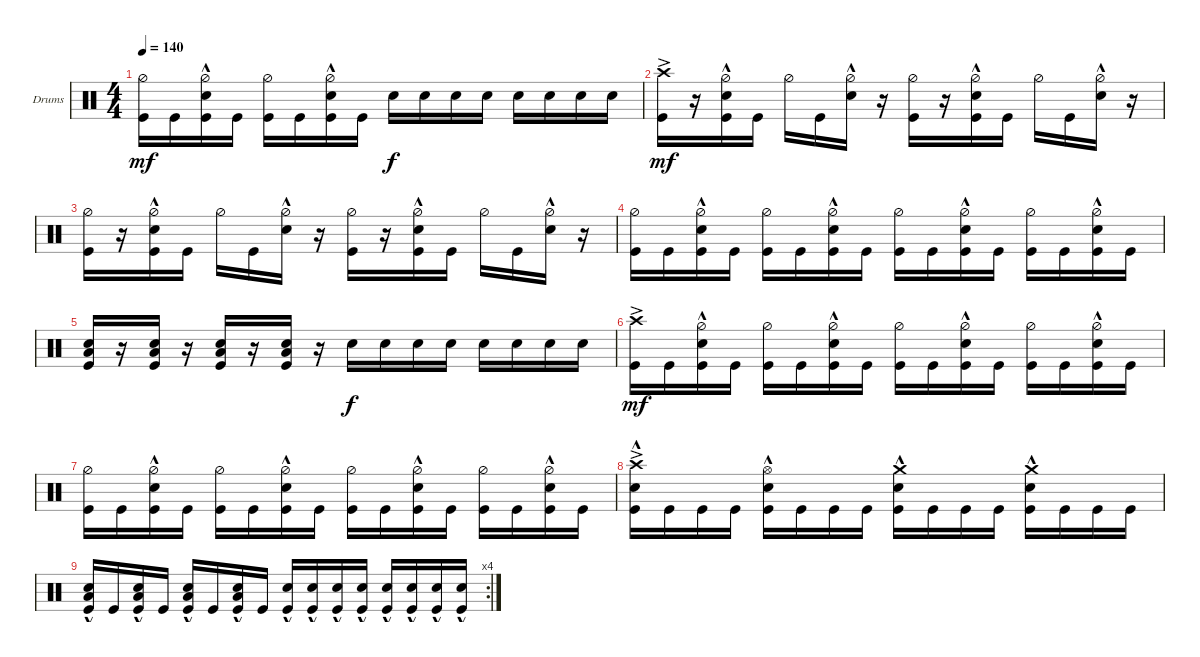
\defaultSystemsLayout 4
\bracketExtendMode groupsimilarinstruments
\firstSystemTrackNameOrientation horizontal
\otherSystemsTrackNameOrientation horizontal
\track ("Drumkit" "Drums") {instrument percussion}
\staff {score}
\articulation defaults
\ts (4 4)
\tempo 140
\clef neutral
\ks c
("Kick (hit)" "Hi-Hat (half)").16{dy mf} "Kick (hit)".16 ("Kick (hit)" "Snare (hit) 2"{hac} "Hi-Hat (half)").16 "Kick (hit)".16 ("Kick (hit)" "Hi-Hat (half)").16 "Kick (hit)".16 ("Kick (hit)" "Snare (hit) 2"{hac} "Hi-Hat (half)").16 "Kick (hit)".16 "Snare (hit) 2".16{dy f} "Snare (hit) 2".16 "Snare (hit) 2".16 "Snare (hit) 2".16 "Snare (hit) 2".16 "Snare (hit) 2".16 "Snare (hit) 2".16 "Snare (hit) 2".16 |
("Kick (hit)" "Crash high (hit)"{ac}).16{dy mf} r.16 ("Kick (hit)" "Snare (hit) 2"{hac} "Hi-Hat (half)").16 "Kick (hit)".16 "Hi-Hat (half)".16 "Kick (hit)".16 ("Snare (hit) 2"{hac} "Hi-Hat (half)").16 r.16 ("Kick (hit)" "Hi-Hat (half)").16 r.16 ("Kick (hit)" "Snare (hit) 2"{hac} "Hi-Hat (half)").16 "Kick (hit)".16 "Hi-Hat (half)".16 "Kick (hit)".16 ("Snare (hit) 2"{hac} "Hi-Hat (half)").16 r.16 |
("Kick (hit)" "Hi-Hat (half)").16 r.16 ("Kick (hit)" "Snare (hit) 2"{hac} "Hi-Hat (half)").16 "Kick (hit)".16 "Hi-Hat (half)".16 "Kick (hit)".16 ("Snare (hit) 2"{hac} "Hi-Hat (half)").16 r.16 ("Kick (hit)" "Hi-Hat (half)").16 r.16 ("Kick (hit)" "Snare (hit) 2"{hac} "Hi-Hat (half)").16 "Kick (hit)".16 "Hi-Hat (half)".16 "Kick (hit)".16 ("Snare (hit) 2"{hac} "Hi-Hat (half)").16 r.16 |
("Kick (hit)" "Hi-Hat (half)").16 "Kick (hit)".16 ("Kick (hit)" "Snare (hit) 2"{hac} "Hi-Hat (half)").16 "Kick (hit)".16 ("Kick (hit)" "Hi-Hat (half)").16 "Kick (hit)".16 ("Kick (hit)" "Snare (hit) 2"{hac} "Hi-Hat (half)").16 "Kick (hit)".16 ("Kick (hit)" "Hi-Hat (half)").16 "Kick (hit)".16 ("Kick (hit)" "Snare (hit) 2"{hac} "Hi-Hat (half)").16 "Kick (hit)".16 ("Kick (hit)" "Hi-Hat (half)").16 "Kick (hit)".16 ("Kick (hit)" "Snare (hit) 2"{hac} "Hi-Hat (half)").16 "Kick (hit)".16 |
("Kick (hit)" "Low Tom (hit)" "Snare (hit) 2").16 r.16 ("Kick (hit)" "Low Tom (hit)" "Snare (hit) 2").16 r.16 ("Kick (hit)" "Low Tom (hit)" "Snare (hit) 2").16 r.16 ("Kick (hit)" "Low Tom (hit)" "Snare (hit) 2").16 r.16 "Snare (hit) 2".16{dy f} "Snare (hit) 2".16 "Snare (hit) 2".16 "Snare (hit) 2".16 "Snare (hit) 2".16 "Snare (hit) 2".16 "Snare (hit) 2".16 "Snare (hit) 2".16 |
("Kick (hit)" "Crash high (hit)"{ac}).16{dy mf} "Kick (hit)".16 ("Kick (hit)" "Snare (hit) 2"{hac} "Hi-Hat (half)").16 "Kick (hit)".16 ("Kick (hit)" "Hi-Hat (half)").16 "Kick (hit)".16 ("Kick (hit)" "Snare (hit) 2"{hac} "Hi-Hat (half)").16 "Kick (hit)".16 ("Kick (hit)" "Hi-Hat (half)").16 "Kick (hit)".16 ("Kick (hit)" "Snare (hit) 2"{hac} "Hi-Hat (half)").16 "Kick (hit)".16 ("Kick (hit)" "Hi-Hat (half)").16 "Kick (hit)".16 ("Kick (hit)" "Snare (hit) 2"{hac} "Hi-Hat (half)").16 "Kick (hit)".16 |
("Kick (hit)" "Hi-Hat (half)").16 "Kick (hit)".16 ("Kick (hit)" "Snare (hit) 2"{hac} "Hi-Hat (half)").16 "Kick (hit)".16 ("Kick (hit)" "Hi-Hat (half)").16 "Kick (hit)".16 ("Kick (hit)" "Snare (hit) 2"{hac} "Hi-Hat (half)").16 "Kick (hit)".16 ("Kick (hit)" "Hi-Hat (half)").16 "Kick (hit)".16 ("Kick (hit)" "Snare (hit) 2"{hac} "Hi-Hat (half)").16 "Kick (hit)".16 ("Kick (hit)" "Hi-Hat (half)").16 "Kick (hit)".16 ("Kick (hit)" "Snare (hit) 2"{hac} "Hi-Hat (half)").16 "Kick (hit)".16 |
("Kick (hit)" "Crash high (hit)"{ac} "Snare (hit) 2"{hac}).16 "Kick (hit)".16 "Kick (hit)".16 "Kick (hit)".16 ("Kick (hit)" "Snare (hit) 2"{hac} "Hi-Hat (open)").16 "Kick (hit)".16 "Kick (hit)".16 "Kick (hit)".16 ("Kick (hit)" "Snare (hit) 2"{hac} "Crash medium (hit)").16 "Kick (hit)".16 "Kick (hit)".16 "Kick (hit)".16 ("Kick (hit)" "Snare (hit) 2"{hac} "Crash medium (hit)").16 "Kick (hit)".16 "Kick (hit)".16 "Kick (hit)".16 |
\rc 4
("Kick (hit)" "Snare (hit) 2"{hac} "Low Tom (hit)").16 "Kick (hit)".16 ("Kick (hit)" "Snare (hit) 2"{hac} "Low Tom (hit)").16 "Kick (hit)".16 ("Kick (hit)" "Snare (hit) 2"{hac} "Low Tom (hit)").16 "Kick (hit)".16 ("Kick (hit)" "Snare (hit) 2"{hac} "Low Tom (hit)").16 "Kick (hit)".16 ("Snare (hit) 2"{hac} "Kick (hit)").16 ("Snare (hit) 2"{hac} "Kick (hit)").16 ("Snare (hit) 2"{hac} "Kick (hit)").16 ("Snare (hit) 2"{hac} "Kick (hit)").16 ("Snare (hit) 2"{hac} "Kick (hit)").16 ("Snare (hit) 2"{hac} "Kick (hit)").16 ("Snare (hit) 2"{hac} "Kick (hit)").16 ("Snare (hit) 2"{hac} "Kick (hit)").16
